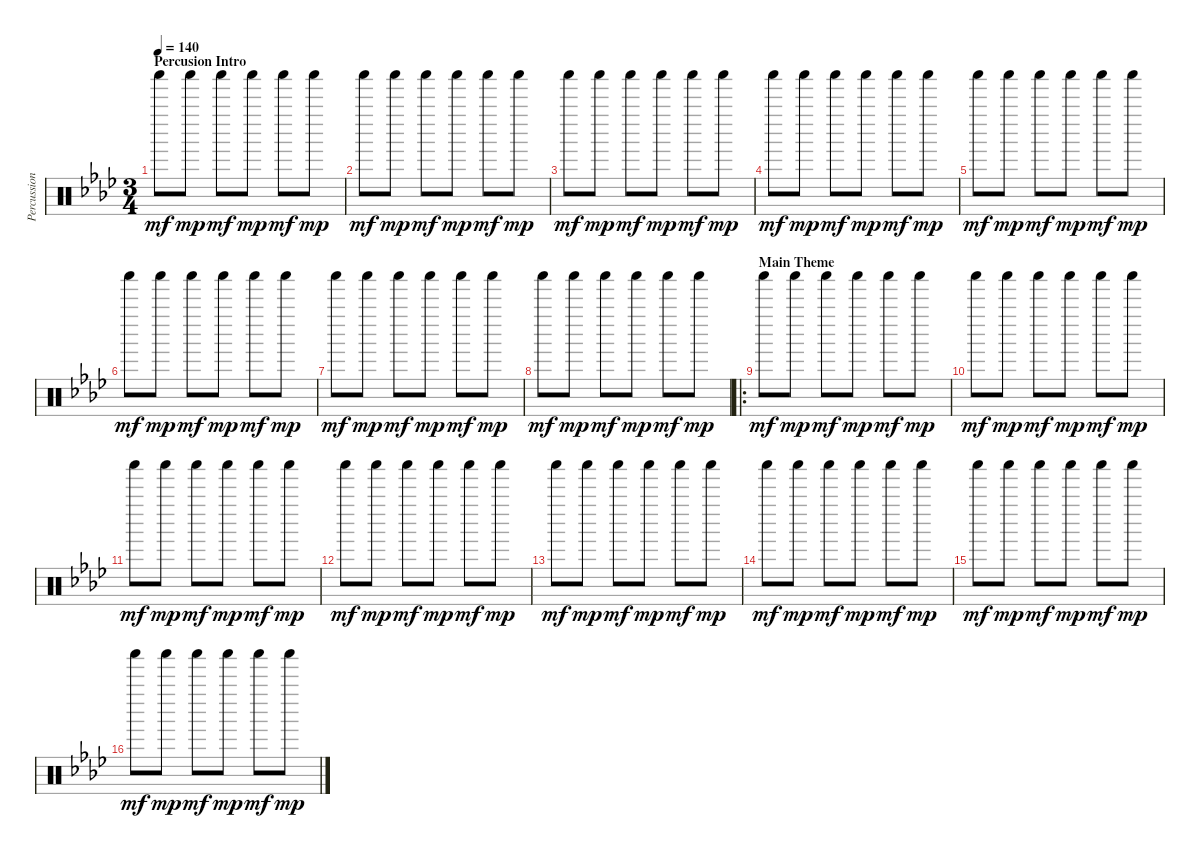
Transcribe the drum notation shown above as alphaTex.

\track ("Percussion" "Percussion") {instrument percussion}
\staff {score}
\articulation defaults
\ts (3 4)
\section ("" "Percusion Intro")
\tempo 140
\clef neutral
\ks fminor "Shaker (hit)".8{dy mf} "Shaker (hit)".8{dy mp} "Shaker (hit)".8{dy mf} "Shaker (hit)".8{dy mp} "Shaker (hit)".8{dy mf} "Shaker (hit)".8{dy mp}
|
"Shaker (hit)".8{dy mf} "Shaker (hit)".8{dy mp} "Shaker (hit)".8{dy mf} "Shaker (hit)".8{dy mp} "Shaker (hit)".8{dy mf} "Shaker (hit)".8{dy mp} |
"Shaker (hit)".8{dy mf} "Shaker (hit)".8{dy mp} "Shaker (hit)".8{dy mf} "Shaker (hit)".8{dy mp} "Shaker (hit)".8{dy mf} "Shaker (hit)".8{dy mp} |
"Shaker (hit)".8{dy mf} "Shaker (hit)".8{dy mp} "Shaker (hit)".8{dy mf} "Shaker (hit)".8{dy mp} "Shaker (hit)".8{dy mf} "Shaker (hit)".8{dy mp} |
"Shaker (hit)".8{dy mf} "Shaker (hit)".8{dy mp} "Shaker (hit)".8{dy mf} "Shaker (hit)".8{dy mp} "Shaker (hit)".8{dy mf} "Shaker (hit)".8{dy mp} |
"Shaker (hit)".8{dy mf} "Shaker (hit)".8{dy mp} "Shaker (hit)".8{dy mf} "Shaker (hit)".8{dy mp} "Shaker (hit)".8{dy mf} "Shaker (hit)".8{dy mp} |
"Shaker (hit)".8{dy mf} "Shaker (hit)".8{dy mp} "Shaker (hit)".8{dy mf} "Shaker (hit)".8{dy mp} "Shaker (hit)".8{dy mf} "Shaker (hit)".8{dy mp} |
"Shaker (hit)".8{dy mf} "Shaker (hit)".8{dy mp} "Shaker (hit)".8{dy mf} "Shaker (hit)".8{dy mp} "Shaker (hit)".8{dy mf} "Shaker (hit)".8{dy mp} |
\ro
\section ("" "Main Theme")
"Shaker (hit)".8{dy mf} "Shaker (hit)".8{dy mp} "Shaker (hit)".8{dy mf} "Shaker (hit)".8{dy mp} "Shaker (hit)".8{dy mf} "Shaker (hit)".8{dy mp} |
"Shaker (hit)".8{dy mf} "Shaker (hit)".8{dy mp} "Shaker (hit)".8{dy mf} "Shaker (hit)".8{dy mp} "Shaker (hit)".8{dy mf} "Shaker (hit)".8{dy mp} |
"Shaker (hit)".8{dy mf} "Shaker (hit)".8{dy mp} "Shaker (hit)".8{dy mf} "Shaker (hit)".8{dy mp} "Shaker (hit)".8{dy mf} "Shaker (hit)".8{dy mp} |
"Shaker (hit)".8{dy mf} "Shaker (hit)".8{dy mp} "Shaker (hit)".8{dy mf} "Shaker (hit)".8{dy mp} "Shaker (hit)".8{dy mf} "Shaker (hit)".8{dy mp} |
"Shaker (hit)".8{dy mf} "Shaker (hit)".8{dy mp} "Shaker (hit)".8{dy mf} "Shaker (hit)".8{dy mp} "Shaker (hit)".8{dy mf} "Shaker (hit)".8{dy mp} |
"Shaker (hit)".8{dy mf} "Shaker (hit)".8{dy mp} "Shaker (hit)".8{dy mf} "Shaker (hit)".8{dy mp} "Shaker (hit)".8{dy mf} "Shaker (hit)".8{dy mp} |
"Shaker (hit)".8{dy mf} "Shaker (hit)".8{dy mp} "Shaker (hit)".8{dy mf} "Shaker (hit)".8{dy mp} "Shaker (hit)".8{dy mf} "Shaker (hit)".8{dy mp} |
"Shaker (hit)".8{dy mf} "Shaker (hit)".8{dy mp} "Shaker (hit)".8{dy mf} "Shaker (hit)".8{dy mp} "Shaker (hit)".8{dy mf} "Shaker (hit)".8{dy mp}
